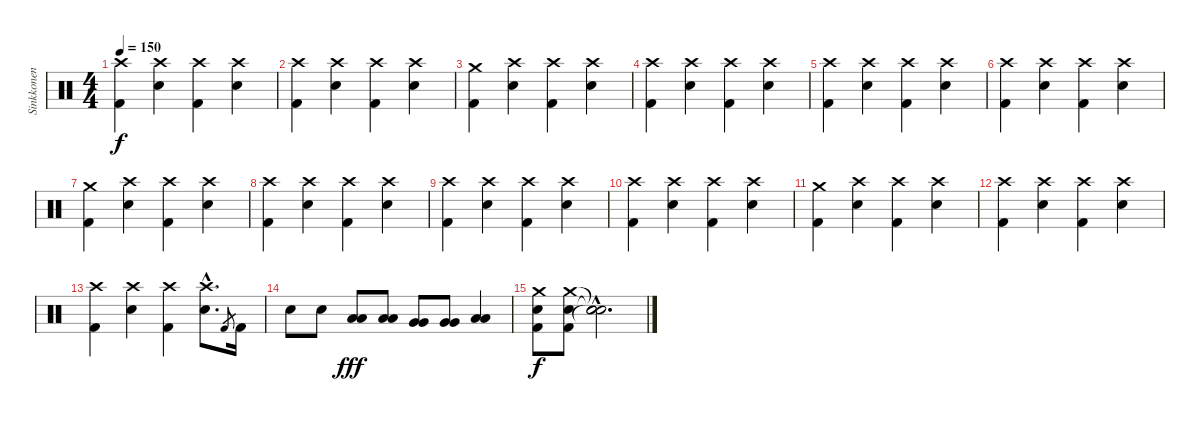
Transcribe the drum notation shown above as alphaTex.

\track ("Sinkkonen" "Sinkkonen") {instrument percussion}
\staff {score}
\articulation defaults
\ts (4 4)
\tempo 150
\clef neutral
\ks c
("Kick (hit) 2" "Crash high (hit)").4{dy f} ("Crash high (hit)" "Snare (hit) 2").4 ("Kick (hit) 2" "Crash high (hit)").4 ("Crash high (hit)" "Snare (hit) 2").4 |
("Kick (hit) 2" "Crash high (hit)").4 ("Crash high (hit)" "Snare (hit) 2").4 ("Kick (hit) 2" "Crash high (hit)").4 ("Crash high (hit)" "Snare (hit) 2").4 |
("Kick (hit) 2" "Crash medium (hit)").4 ("Crash high (hit)" "Snare (hit) 2").4 ("Kick (hit) 2" "Crash high (hit)").4 ("Crash high (hit)" "Snare (hit) 2").4 |
("Kick (hit) 2" "Crash high (hit)").4 ("Crash high (hit)" "Snare (hit) 2").4 ("Kick (hit) 2" "Crash high (hit)").4 ("Crash high (hit)" "Snare (hit) 2").4 |
("Kick (hit) 2" "Crash high (hit)").4 ("Crash high (hit)" "Snare (hit) 2").4 ("Kick (hit) 2" "Crash high (hit)").4 ("Crash high (hit)" "Snare (hit) 2").4 |
("Kick (hit) 2" "Crash high (hit)").4 ("Crash high (hit)" "Snare (hit) 2").4 ("Kick (hit) 2" "Crash high (hit)").4 ("Crash high (hit)" "Snare (hit) 2").4 |
("Kick (hit) 2" "Crash medium (hit)").4 ("Crash high (hit)" "Snare (hit) 2").4 ("Kick (hit) 2" "Crash high (hit)").4 ("Crash high (hit)" "Snare (hit) 2").4 |
("Kick (hit) 2" "Crash high (hit)").4 ("Crash high (hit)" "Snare (hit) 2").4 ("Kick (hit) 2" "Crash high (hit)").4 ("Crash high (hit)" "Snare (hit) 2").4 |
("Kick (hit) 2" "Crash high (hit)").4 ("Crash high (hit)" "Snare (hit) 2").4 ("Kick (hit) 2" "Crash high (hit)").4 ("Crash high (hit)" "Snare (hit) 2").4 |
("Kick (hit) 2" "Crash high (hit)").4 ("Crash high (hit)" "Snare (hit) 2").4 ("Kick (hit) 2" "Crash high (hit)").4 ("Crash high (hit)" "Snare (hit) 2").4 |
("Kick (hit) 2" "Crash medium (hit)").4 ("Crash high (hit)" "Snare (hit) 2").4 ("Kick (hit) 2" "Crash high (hit)").4 ("Crash high (hit)" "Snare (hit) 2").4 |
("Kick (hit) 2" "Crash high (hit)").4 ("Crash high (hit)" "Snare (hit) 2").4 ("Kick (hit) 2" "Crash high (hit)").4 ("Crash high (hit)" "Snare (hit) 2").4 |
("Kick (hit) 2" "Crash high (hit)").4 ("Crash high (hit)" "Snare (hit) 2").4 ("Kick (hit) 2" "Crash high (hit)").4 ("Crash high (hit)"{hac} "Snare (hit) 2"{hac}).8{d} "Kick (hit) 2".8{gr} "Kick (hit) 2".16 |
"Snare (hit) 2".8 "Snare (hit) 2".8 ("Low Tom (hit)" "Low Tom (hit)").8{dy fff} ("Low Tom (hit)" "Low Tom (hit)").8 ("Very Low Tom (hit)" "Very Low Tom (hit)").8 ("Very Low Tom (hit)" "Very Low Tom (hit)").8 ("Low Floor Tom (hit)" "Low Floor Tom (hit)").4 |
("Kick (hit) 2" "Crash medium (hit)" "Snare (hit) 2").8{dy f} ("Kick (hit) 2" "Crash medium (hit)" "Snare (hit) 2").8 ("Snare (hit)"{hac t} "Snare (hit)"{hac t} "Snare (hit)"{hac t}).2{d}
